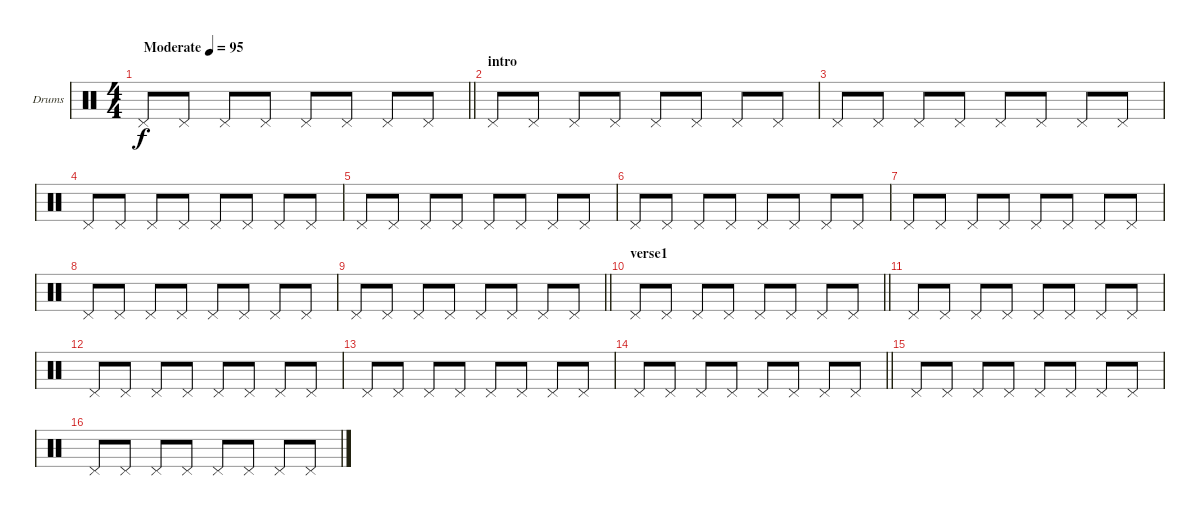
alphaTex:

\bracketExtendMode groupsimilarinstruments
\firstSystemTrackNameOrientation horizontal
\otherSystemsTrackNameOrientation horizontal
\track ("Drumkit" "Drums") {instrument percussion}
\staff {score}
\articulation defaults
\ts (4 4)
\beaming (8 2 2 2 2)
\tempo (95 "Moderate")
\clef neutral
\barLineRight lightlight
\ks c "Pedal Hi-Hat (hit)".8{dy f} "Pedal Hi-Hat (hit)".8 "Pedal Hi-Hat (hit)".8 "Pedal Hi-Hat (hit)".8 "Pedal Hi-Hat (hit)".8 "Pedal Hi-Hat (hit)".8 "Pedal Hi-Hat (hit)".8 "Pedal Hi-Hat (hit)".8
|
\section ("" "intro")
"Pedal Hi-Hat (hit)".8 "Pedal Hi-Hat (hit)".8 "Pedal Hi-Hat (hit)".8 "Pedal Hi-Hat (hit)".8 "Pedal Hi-Hat (hit)".8 "Pedal Hi-Hat (hit)".8 "Pedal Hi-Hat (hit)".8 "Pedal Hi-Hat (hit)".8 |
"Pedal Hi-Hat (hit)".8 "Pedal Hi-Hat (hit)".8 "Pedal Hi-Hat (hit)".8 "Pedal Hi-Hat (hit)".8 "Pedal Hi-Hat (hit)".8 "Pedal Hi-Hat (hit)".8 "Pedal Hi-Hat (hit)".8 "Pedal Hi-Hat (hit)".8 |
"Pedal Hi-Hat (hit)".8 "Pedal Hi-Hat (hit)".8 "Pedal Hi-Hat (hit)".8 "Pedal Hi-Hat (hit)".8 "Pedal Hi-Hat (hit)".8 "Pedal Hi-Hat (hit)".8 "Pedal Hi-Hat (hit)".8 "Pedal Hi-Hat (hit)".8 |
"Pedal Hi-Hat (hit)".8 "Pedal Hi-Hat (hit)".8 "Pedal Hi-Hat (hit)".8 "Pedal Hi-Hat (hit)".8 "Pedal Hi-Hat (hit)".8 "Pedal Hi-Hat (hit)".8 "Pedal Hi-Hat (hit)".8 "Pedal Hi-Hat (hit)".8 |
"Pedal Hi-Hat (hit)".8 "Pedal Hi-Hat (hit)".8 "Pedal Hi-Hat (hit)".8 "Pedal Hi-Hat (hit)".8 "Pedal Hi-Hat (hit)".8 "Pedal Hi-Hat (hit)".8 "Pedal Hi-Hat (hit)".8 "Pedal Hi-Hat (hit)".8 |
"Pedal Hi-Hat (hit)".8 "Pedal Hi-Hat (hit)".8 "Pedal Hi-Hat (hit)".8 "Pedal Hi-Hat (hit)".8 "Pedal Hi-Hat (hit)".8 "Pedal Hi-Hat (hit)".8 "Pedal Hi-Hat (hit)".8 "Pedal Hi-Hat (hit)".8 |
"Pedal Hi-Hat (hit)".8 "Pedal Hi-Hat (hit)".8 "Pedal Hi-Hat (hit)".8 "Pedal Hi-Hat (hit)".8 "Pedal Hi-Hat (hit)".8 "Pedal Hi-Hat (hit)".8 "Pedal Hi-Hat (hit)".8 "Pedal Hi-Hat (hit)".8 |
\barLineRight lightlight "Pedal Hi-Hat (hit)".8 "Pedal Hi-Hat (hit)".8 "Pedal Hi-Hat (hit)".8 "Pedal Hi-Hat (hit)".8 "Pedal Hi-Hat (hit)".8 "Pedal Hi-Hat (hit)".8 "Pedal Hi-Hat (hit)".8 "Pedal Hi-Hat (hit)".8
|
\section ("" "verse1")
\barLineRight lightlight "Pedal Hi-Hat (hit)".8 "Pedal Hi-Hat (hit)".8 "Pedal Hi-Hat (hit)".8 "Pedal Hi-Hat (hit)".8 "Pedal Hi-Hat (hit)".8 "Pedal Hi-Hat (hit)".8 "Pedal Hi-Hat (hit)".8 "Pedal Hi-Hat (hit)".8
|
"Pedal Hi-Hat (hit)".8 "Pedal Hi-Hat (hit)".8 "Pedal Hi-Hat (hit)".8 "Pedal Hi-Hat (hit)".8 "Pedal Hi-Hat (hit)".8 "Pedal Hi-Hat (hit)".8 "Pedal Hi-Hat (hit)".8 "Pedal Hi-Hat (hit)".8 |
"Pedal Hi-Hat (hit)".8 "Pedal Hi-Hat (hit)".8 "Pedal Hi-Hat (hit)".8 "Pedal Hi-Hat (hit)".8 "Pedal Hi-Hat (hit)".8 "Pedal Hi-Hat (hit)".8 "Pedal Hi-Hat (hit)".8 "Pedal Hi-Hat (hit)".8 |
"Pedal Hi-Hat (hit)".8 "Pedal Hi-Hat (hit)".8 "Pedal Hi-Hat (hit)".8 "Pedal Hi-Hat (hit)".8 "Pedal Hi-Hat (hit)".8 "Pedal Hi-Hat (hit)".8 "Pedal Hi-Hat (hit)".8 "Pedal Hi-Hat (hit)".8 |
\barLineRight lightlight "Pedal Hi-Hat (hit)".8 "Pedal Hi-Hat (hit)".8 "Pedal Hi-Hat (hit)".8 "Pedal Hi-Hat (hit)".8 "Pedal Hi-Hat (hit)".8 "Pedal Hi-Hat (hit)".8 "Pedal Hi-Hat (hit)".8 "Pedal Hi-Hat (hit)".8
|
"Pedal Hi-Hat (hit)".8 "Pedal Hi-Hat (hit)".8 "Pedal Hi-Hat (hit)".8 "Pedal Hi-Hat (hit)".8 "Pedal Hi-Hat (hit)".8 "Pedal Hi-Hat (hit)".8 "Pedal Hi-Hat (hit)".8 "Pedal Hi-Hat (hit)".8 |
"Pedal Hi-Hat (hit)".8 "Pedal Hi-Hat (hit)".8 "Pedal Hi-Hat (hit)".8 "Pedal Hi-Hat (hit)".8 "Pedal Hi-Hat (hit)".8 "Pedal Hi-Hat (hit)".8 "Pedal Hi-Hat (hit)".8 "Pedal Hi-Hat (hit)".8
